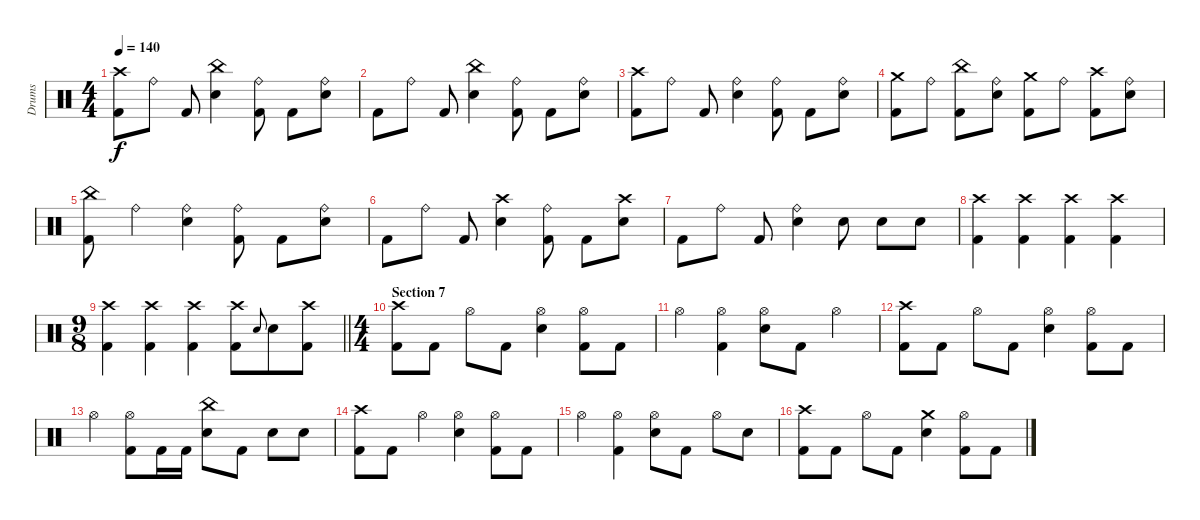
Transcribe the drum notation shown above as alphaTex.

\track ("Drums" "Drums") {instrument percussion}
\staff {score}
\articulation defaults
\ts (4 4)
\tempo 140
\clef neutral
\ks c
("Crash high (hit)" "Kick (hit) 2").8{dy f} "Ride (bell)".8 "Kick (hit) 2".8 ("China (hit)" "Snare (hit) 2").4 ("Ride (bell)" "Kick (hit) 2").8 "Kick (hit) 2".8 ("Ride (bell)" "Snare (hit) 2").8 |
"Kick (hit) 2".8 "Ride (bell)".8 "Kick (hit) 2".8 ("China (hit)" "Snare (hit) 2").4 ("Ride (bell)" "Kick (hit) 2").8 "Kick (hit) 2".8 ("Ride (bell)" "Snare (hit) 2").8 |
("Crash high (hit)" "Kick (hit) 2").8 "Ride (bell)".8 "Kick (hit) 2".8 ("Ride (bell)" "Snare (hit) 2").4 ("Ride (bell)" "Kick (hit) 2").8 "Kick (hit) 2".8 ("Ride (bell)" "Snare (hit) 2").8 |
("Crash medium (hit)" "Kick (hit) 2").8 "Ride (bell)".8 ("China (hit)" "Kick (hit) 2").8 ("Ride (bell)" "Snare (hit) 2").8 ("Crash medium (hit)" "Kick (hit) 2").8 "Ride (bell)".8 ("Crash high (hit)" "Kick (hit) 2").8 ("Ride (bell)" "Snare (hit) 2").8 |
("China (hit)" "Kick (hit) 2").8 "Ride (bell)".4 ("Ride (bell)" "Snare (hit) 2").4 ("Ride (bell)" "Kick (hit) 2").8 "Kick (hit) 2".8 ("Ride (bell)" "Snare (hit) 2").8 |
"Kick (hit) 2".8 "Ride (bell)".8 "Kick (hit) 2".8 ("Crash high (hit)" "Snare (hit) 2").4 ("Ride (bell)" "Kick (hit) 2").8 "Kick (hit) 2".8 ("Crash high (hit)" "Snare (hit) 2").8 |
"Kick (hit) 2".8 "Ride (bell)".8 "Kick (hit) 2".8 ("Ride (bell)" "Snare (hit) 2").4 "Snare (hit) 2".8 "Snare (hit) 2".8 "Snare (hit) 2".8 |
("Crash high (hit)" "Kick (hit) 2").4 ("Crash high (hit)" "Kick (hit) 2").4 ("Crash high (hit)" "Kick (hit) 2").4 ("Crash high (hit)" "Kick (hit) 2").4 |
\ts (9 8)
\barLineRight lightlight
("Crash high (hit)" "Kick (hit) 2").4 ("Crash high (hit)" "Kick (hit) 2").4 ("Crash high (hit)" "Kick (hit) 2").4 ("Crash high (hit)" "Kick (hit) 2").8 "Snare (hit) 2"{h}.8{gr onbeat} "Snare (hit) 2".8 ("Crash high (hit)" "Kick (hit) 2").8 |
\ts (4 4)
\section ("" "Section 7")
("Crash high (hit)" "Kick (hit) 2").8 "Kick (hit) 2".8 "Hi-Hat (open)".8 "Kick (hit) 2".8 ("Hi-Hat (open)" "Snare (hit) 2").4 ("Hi-Hat (open)" "Kick (hit) 2").8 "Kick (hit) 2".8 |
"Hi-Hat (open)".4 ("Hi-Hat (open)" "Kick (hit) 2").4 ("Hi-Hat (open)" "Snare (hit) 2").8 "Kick (hit) 2".8 "Hi-Hat (open)".4 |
("Crash high (hit)" "Kick (hit) 2").8 "Kick (hit) 2".8 "Hi-Hat (open)".8 "Kick (hit) 2".8 ("Hi-Hat (open)" "Snare (hit) 2").4 ("Hi-Hat (open)" "Kick (hit) 2").8 "Kick (hit) 2".8 |
"Hi-Hat (open)".4 ("Hi-Hat (open)" "Kick (hit) 2").8 "Kick (hit) 2".16 "Kick (hit) 2".16 ("China (hit)" "Snare (hit) 2").8 "Kick (hit) 2".8 "Snare (hit) 2".8 "Snare (hit) 2".8 |
("Crash high (hit)" "Kick (hit) 2").8 "Kick (hit) 2".8 "Hi-Hat (open)".4 ("Hi-Hat (open)" "Snare (hit) 2").4 ("Hi-Hat (open)" "Kick (hit) 2").8 "Kick (hit) 2".8 |
"Hi-Hat (open)".4 ("Hi-Hat (open)" "Kick (hit) 2").4 ("Hi-Hat (open)" "Snare (hit) 2").8 "Kick (hit) 2".8 "Hi-Hat (open)".8 "Snare (hit) 2".8 |
("Crash high (hit)" "Kick (hit) 2").8 "Kick (hit) 2".8 "Hi-Hat (open)".8 "Kick (hit) 2".8 ("Crash medium (hit)" "Snare (hit) 2").4 ("Hi-Hat (open)" "Kick (hit) 2").8 "Kick (hit) 2".8
